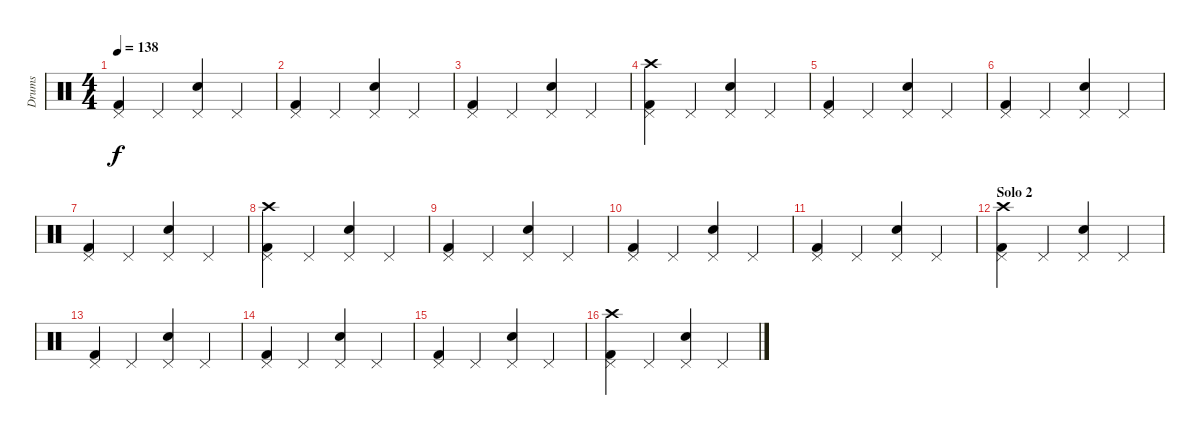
\track ("Drums" "Drums") {instrument percussion}
\staff {score}
\articulation defaults
\ts (4 4)
\tempo 138
\clef neutral
\ks c
("Kick (hit) 2" "Pedal Hi-Hat (hit)").4{dy f} "Pedal Hi-Hat (hit)".4 ("Snare (hit) 2" "Pedal Hi-Hat (hit)").4 "Pedal Hi-Hat (hit)".4 |
("Kick (hit) 2" "Pedal Hi-Hat (hit)").4 "Pedal Hi-Hat (hit)".4 ("Snare (hit) 2" "Pedal Hi-Hat (hit)").4 "Pedal Hi-Hat (hit)".4 |
("Kick (hit) 2" "Pedal Hi-Hat (hit)").4 "Pedal Hi-Hat (hit)".4 ("Snare (hit) 2" "Pedal Hi-Hat (hit)").4 "Pedal Hi-Hat (hit)".4 |
("Kick (hit) 2" "Pedal Hi-Hat (hit)" "Crash high (hit)").4 "Pedal Hi-Hat (hit)".4 ("Snare (hit) 2" "Pedal Hi-Hat (hit)").4 "Pedal Hi-Hat (hit)".4 |
("Kick (hit) 2" "Pedal Hi-Hat (hit)").4 "Pedal Hi-Hat (hit)".4 ("Snare (hit) 2" "Pedal Hi-Hat (hit)").4 "Pedal Hi-Hat (hit)".4 |
("Kick (hit) 2" "Pedal Hi-Hat (hit)").4 "Pedal Hi-Hat (hit)".4 ("Snare (hit) 2" "Pedal Hi-Hat (hit)").4 "Pedal Hi-Hat (hit)".4 |
("Kick (hit) 2" "Pedal Hi-Hat (hit)").4 "Pedal Hi-Hat (hit)".4 ("Snare (hit) 2" "Pedal Hi-Hat (hit)").4 "Pedal Hi-Hat (hit)".4 |
("Kick (hit) 2" "Pedal Hi-Hat (hit)" "Crash high (hit)").4 "Pedal Hi-Hat (hit)".4 ("Snare (hit) 2" "Pedal Hi-Hat (hit)").4 "Pedal Hi-Hat (hit)".4 |
("Kick (hit) 2" "Pedal Hi-Hat (hit)").4 "Pedal Hi-Hat (hit)".4 ("Snare (hit) 2" "Pedal Hi-Hat (hit)").4 "Pedal Hi-Hat (hit)".4 |
("Kick (hit) 2" "Pedal Hi-Hat (hit)").4 "Pedal Hi-Hat (hit)".4 ("Snare (hit) 2" "Pedal Hi-Hat (hit)").4 "Pedal Hi-Hat (hit)".4 |
("Kick (hit) 2" "Pedal Hi-Hat (hit)").4 "Pedal Hi-Hat (hit)".4 ("Snare (hit) 2" "Pedal Hi-Hat (hit)").4 "Pedal Hi-Hat (hit)".4 |
\section ("" "Solo 2")
("Kick (hit) 2" "Pedal Hi-Hat (hit)" "Crash high (hit)").4 "Pedal Hi-Hat (hit)".4 ("Snare (hit) 2" "Pedal Hi-Hat (hit)").4 "Pedal Hi-Hat (hit)".4 |
("Kick (hit) 2" "Pedal Hi-Hat (hit)").4 "Pedal Hi-Hat (hit)".4 ("Snare (hit) 2" "Pedal Hi-Hat (hit)").4 "Pedal Hi-Hat (hit)".4 |
("Kick (hit) 2" "Pedal Hi-Hat (hit)").4 "Pedal Hi-Hat (hit)".4 ("Snare (hit) 2" "Pedal Hi-Hat (hit)").4 "Pedal Hi-Hat (hit)".4 |
("Kick (hit) 2" "Pedal Hi-Hat (hit)").4 "Pedal Hi-Hat (hit)".4 ("Snare (hit) 2" "Pedal Hi-Hat (hit)").4 "Pedal Hi-Hat (hit)".4 |
("Kick (hit) 2" "Pedal Hi-Hat (hit)" "Crash high (hit)").4 "Pedal Hi-Hat (hit)".4 ("Snare (hit) 2" "Pedal Hi-Hat (hit)").4 "Pedal Hi-Hat (hit)".4
